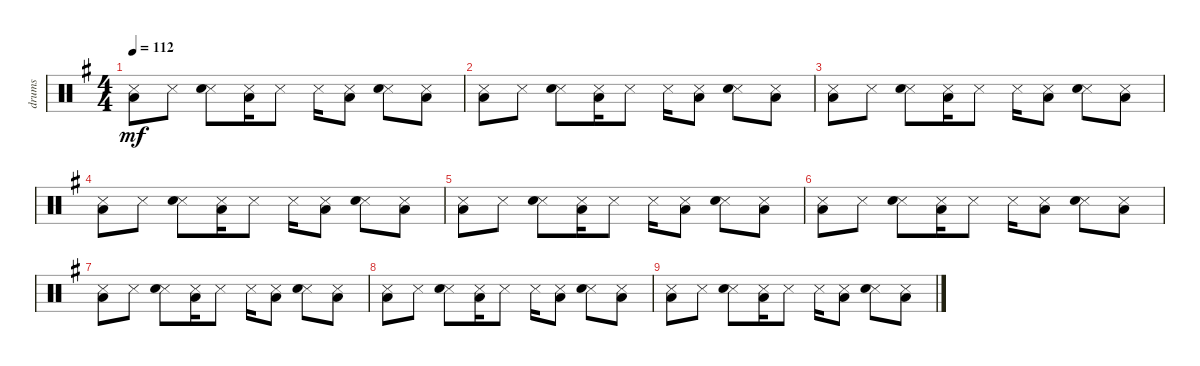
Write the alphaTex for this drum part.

\track ("drums" "drums") {instrument percussion}
\staff {score}
\articulation defaults
\ts (4 4)
\tempo 112
\clef neutral
\ks g
("Snare (side stick) 3" "Low Floor Tom (hit)").8{dy mf} "Snare (side stick) 3".8 ("Snare (side stick) 3" "Snare (hit) 2").8 ("Snare (side stick) 3" "Low Floor Tom (hit)").16 "Snare (side stick) 3".8 "Snare (side stick) 3".16 ("Snare (side stick) 3" "Low Floor Tom (hit)").8 ("Snare (side stick) 3" "Snare (hit) 2").8 ("Snare (side stick) 3" "Low Floor Tom (hit)").8 |
("Snare (side stick) 3" "Low Floor Tom (hit)").8 "Snare (side stick) 3".8 ("Snare (side stick) 3" "Snare (hit) 2").8 ("Snare (side stick) 3" "Low Floor Tom (hit)").16 "Snare (side stick) 3".8 "Snare (side stick) 3".16 ("Snare (side stick) 3" "Low Floor Tom (hit)").8 ("Snare (side stick) 3" "Snare (hit) 2").8 ("Snare (side stick) 3" "Low Floor Tom (hit)").8 |
("Snare (side stick) 3" "Low Floor Tom (hit)").8 "Snare (side stick) 3".8 ("Snare (side stick) 3" "Snare (hit) 2").8 ("Snare (side stick) 3" "Low Floor Tom (hit)").16 "Snare (side stick) 3".8 "Snare (side stick) 3".16 ("Snare (side stick) 3" "Low Floor Tom (hit)").8 ("Snare (side stick) 3" "Snare (hit) 2").8 ("Snare (side stick) 3" "Low Floor Tom (hit)").8 |
("Snare (side stick) 3" "Low Floor Tom (hit)").8 "Snare (side stick) 3".8 ("Snare (side stick) 3" "Snare (hit) 2").8 ("Snare (side stick) 3" "Low Floor Tom (hit)").16 "Snare (side stick) 3".8 "Snare (side stick) 3".16 ("Snare (side stick) 3" "Low Floor Tom (hit)").8 ("Snare (side stick) 3" "Snare (hit) 2").8 ("Snare (side stick) 3" "Low Floor Tom (hit)").8 |
("Snare (side stick) 3" "Low Floor Tom (hit)").8 "Snare (side stick) 3".8 ("Snare (side stick) 3" "Snare (hit) 2").8 ("Snare (side stick) 3" "Low Floor Tom (hit)").16 "Snare (side stick) 3".8 "Snare (side stick) 3".16 ("Snare (side stick) 3" "Low Floor Tom (hit)").8 ("Snare (side stick) 3" "Snare (hit) 2").8 ("Snare (side stick) 3" "Low Floor Tom (hit)").8 |
("Snare (side stick) 3" "Low Floor Tom (hit)").8 "Snare (side stick) 3".8 ("Snare (side stick) 3" "Snare (hit) 2").8 ("Snare (side stick) 3" "Low Floor Tom (hit)").16 "Snare (side stick) 3".8 "Snare (side stick) 3".16 ("Snare (side stick) 3" "Low Floor Tom (hit)").8 ("Snare (side stick) 3" "Snare (hit) 2").8 ("Snare (side stick) 3" "Low Floor Tom (hit)").8 |
("Snare (side stick) 3" "Low Floor Tom (hit)").8 "Snare (side stick) 3".8 ("Snare (side stick) 3" "Snare (hit) 2").8 ("Snare (side stick) 3" "Low Floor Tom (hit)").16 "Snare (side stick) 3".8 "Snare (side stick) 3".16 ("Snare (side stick) 3" "Low Floor Tom (hit)").8 ("Snare (side stick) 3" "Snare (hit) 2").8 ("Snare (side stick) 3" "Low Floor Tom (hit)").8 |
("Snare (side stick) 3" "Low Floor Tom (hit)").8 "Snare (side stick) 3".8 ("Snare (side stick) 3" "Snare (hit) 2").8 ("Snare (side stick) 3" "Low Floor Tom (hit)").16 "Snare (side stick) 3".8 "Snare (side stick) 3".16 ("Snare (side stick) 3" "Low Floor Tom (hit)").8 ("Snare (side stick) 3" "Snare (hit) 2").8 ("Snare (side stick) 3" "Low Floor Tom (hit)").8 |
("Snare (side stick) 3" "Low Floor Tom (hit)").8 "Snare (side stick) 3".8 ("Snare (side stick) 3" "Snare (hit) 2").8 ("Snare (side stick) 3" "Low Floor Tom (hit)").16 "Snare (side stick) 3".8 "Snare (side stick) 3".16 ("Snare (side stick) 3" "Low Floor Tom (hit)").8 ("Snare (side stick) 3" "Snare (hit) 2").8 ("Snare (side stick) 3" "Low Floor Tom (hit)").8
